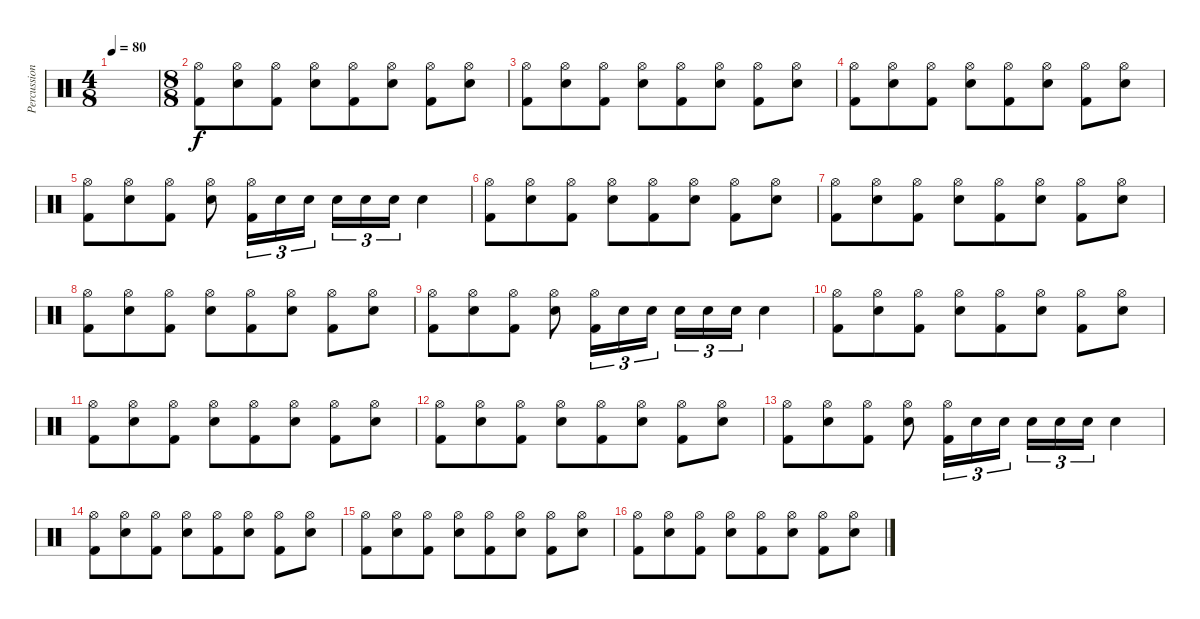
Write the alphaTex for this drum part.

\track ("Percussion" "Percussion") {instrument percussion}
\staff {score}
\articulation defaults
\ts (4 8)
\tempo 80
\clef neutral
\ks c
|
\ts (8 8)
("Hi-Hat (open)" "Kick (hit) 2").8 ("Hi-Hat (open)" "Electric Snare (hit)").8 ("Hi-Hat (open)" "Kick (hit) 2").8 ("Hi-Hat (open)" "Electric Snare (hit)").8 ("Hi-Hat (open)" "Kick (hit) 2").8 ("Hi-Hat (open)" "Electric Snare (hit)").8 ("Hi-Hat (open)" "Kick (hit) 2").8 ("Hi-Hat (open)" "Electric Snare (hit)").8 |
("Hi-Hat (open)" "Kick (hit) 2").8 ("Hi-Hat (open)" "Electric Snare (hit)").8 ("Hi-Hat (open)" "Kick (hit) 2").8 ("Hi-Hat (open)" "Electric Snare (hit)").8 ("Hi-Hat (open)" "Kick (hit) 2").8 ("Hi-Hat (open)" "Electric Snare (hit)").8 ("Hi-Hat (open)" "Kick (hit) 2").8 ("Hi-Hat (open)" "Electric Snare (hit)").8 |
("Hi-Hat (open)" "Kick (hit) 2").8 ("Hi-Hat (open)" "Electric Snare (hit)").8 ("Hi-Hat (open)" "Kick (hit) 2").8 ("Hi-Hat (open)" "Electric Snare (hit)").8 ("Hi-Hat (open)" "Kick (hit) 2").8 ("Hi-Hat (open)" "Electric Snare (hit)").8 ("Hi-Hat (open)" "Kick (hit) 2").8 ("Hi-Hat (open)" "Electric Snare (hit)").8 |
("Hi-Hat (open)" "Kick (hit) 2").8 ("Hi-Hat (open)" "Electric Snare (hit)").8 ("Hi-Hat (open)" "Kick (hit) 2").8 ("Hi-Hat (open)" "Electric Snare (hit)").8 ("Hi-Hat (open)" "Kick (hit) 2").16{tu (3 2)} "Electric Snare (hit)".16{tu (3 2)} "Electric Snare (hit)".16{tu (3 2)} "Electric Snare (hit)".16{tu (3 2)} "Electric Snare (hit)".16{tu (3 2)} "Electric Snare (hit)".16{tu (3 2)} "Electric Snare (hit)".4 |
("Hi-Hat (open)" "Kick (hit) 2").8 ("Hi-Hat (open)" "Electric Snare (hit)").8 ("Hi-Hat (open)" "Kick (hit) 2").8 ("Hi-Hat (open)" "Electric Snare (hit)").8 ("Hi-Hat (open)" "Kick (hit) 2").8 ("Hi-Hat (open)" "Electric Snare (hit)").8 ("Hi-Hat (open)" "Kick (hit) 2").8 ("Hi-Hat (open)" "Electric Snare (hit)").8 |
("Hi-Hat (open)" "Kick (hit) 2").8 ("Hi-Hat (open)" "Electric Snare (hit)").8 ("Hi-Hat (open)" "Kick (hit) 2").8 ("Hi-Hat (open)" "Electric Snare (hit)").8 ("Hi-Hat (open)" "Kick (hit) 2").8 ("Hi-Hat (open)" "Electric Snare (hit)").8 ("Hi-Hat (open)" "Kick (hit) 2").8 ("Hi-Hat (open)" "Electric Snare (hit)").8 |
("Hi-Hat (open)" "Kick (hit) 2").8 ("Hi-Hat (open)" "Electric Snare (hit)").8 ("Hi-Hat (open)" "Kick (hit) 2").8 ("Hi-Hat (open)" "Electric Snare (hit)").8 ("Hi-Hat (open)" "Kick (hit) 2").8 ("Hi-Hat (open)" "Electric Snare (hit)").8 ("Hi-Hat (open)" "Kick (hit) 2").8 ("Hi-Hat (open)" "Electric Snare (hit)").8 |
("Hi-Hat (open)" "Kick (hit) 2").8 ("Hi-Hat (open)" "Electric Snare (hit)").8 ("Hi-Hat (open)" "Kick (hit) 2").8 ("Hi-Hat (open)" "Electric Snare (hit)").8 ("Hi-Hat (open)" "Kick (hit) 2").16{tu (3 2)} "Electric Snare (hit)".16{tu (3 2)} "Electric Snare (hit)".16{tu (3 2)} "Electric Snare (hit)".16{tu (3 2)} "Electric Snare (hit)".16{tu (3 2)} "Electric Snare (hit)".16{tu (3 2)} "Electric Snare (hit)".4 |
("Hi-Hat (open)" "Kick (hit) 2").8 ("Hi-Hat (open)" "Electric Snare (hit)").8 ("Hi-Hat (open)" "Kick (hit) 2").8 ("Hi-Hat (open)" "Electric Snare (hit)").8 ("Hi-Hat (open)" "Kick (hit) 2").8 ("Hi-Hat (open)" "Electric Snare (hit)").8 ("Hi-Hat (open)" "Kick (hit) 2").8 ("Hi-Hat (open)" "Electric Snare (hit)").8 |
("Hi-Hat (open)" "Kick (hit) 2").8 ("Hi-Hat (open)" "Electric Snare (hit)").8 ("Hi-Hat (open)" "Kick (hit) 2").8 ("Hi-Hat (open)" "Electric Snare (hit)").8 ("Hi-Hat (open)" "Kick (hit) 2").8 ("Hi-Hat (open)" "Electric Snare (hit)").8 ("Hi-Hat (open)" "Kick (hit) 2").8 ("Hi-Hat (open)" "Electric Snare (hit)").8 |
("Hi-Hat (open)" "Kick (hit) 2").8 ("Hi-Hat (open)" "Electric Snare (hit)").8 ("Hi-Hat (open)" "Kick (hit) 2").8 ("Hi-Hat (open)" "Electric Snare (hit)").8 ("Hi-Hat (open)" "Kick (hit) 2").8 ("Hi-Hat (open)" "Electric Snare (hit)").8 ("Hi-Hat (open)" "Kick (hit) 2").8 ("Hi-Hat (open)" "Electric Snare (hit)").8 |
("Hi-Hat (open)" "Kick (hit) 2").8 ("Hi-Hat (open)" "Electric Snare (hit)").8 ("Hi-Hat (open)" "Kick (hit) 2").8 ("Hi-Hat (open)" "Electric Snare (hit)").8 ("Hi-Hat (open)" "Kick (hit) 2").16{tu (3 2)} "Electric Snare (hit)".16{tu (3 2)} "Electric Snare (hit)".16{tu (3 2)} "Electric Snare (hit)".16{tu (3 2)} "Electric Snare (hit)".16{tu (3 2)} "Electric Snare (hit)".16{tu (3 2)} "Electric Snare (hit)".4 |
("Hi-Hat (open)" "Kick (hit) 2").8 ("Hi-Hat (open)" "Electric Snare (hit)").8 ("Hi-Hat (open)" "Kick (hit) 2").8 ("Hi-Hat (open)" "Electric Snare (hit)").8 ("Hi-Hat (open)" "Kick (hit) 2").8 ("Hi-Hat (open)" "Electric Snare (hit)").8 ("Hi-Hat (open)" "Kick (hit) 2").8 ("Hi-Hat (open)" "Electric Snare (hit)").8 |
("Hi-Hat (open)" "Kick (hit) 2").8 ("Hi-Hat (open)" "Electric Snare (hit)").8 ("Hi-Hat (open)" "Kick (hit) 2").8 ("Hi-Hat (open)" "Electric Snare (hit)").8 ("Hi-Hat (open)" "Kick (hit) 2").8 ("Hi-Hat (open)" "Electric Snare (hit)").8 ("Hi-Hat (open)" "Kick (hit) 2").8 ("Hi-Hat (open)" "Electric Snare (hit)").8 |
("Hi-Hat (open)" "Kick (hit) 2").8 ("Hi-Hat (open)" "Electric Snare (hit)").8 ("Hi-Hat (open)" "Kick (hit) 2").8 ("Hi-Hat (open)" "Electric Snare (hit)").8 ("Hi-Hat (open)" "Kick (hit) 2").8 ("Hi-Hat (open)" "Electric Snare (hit)").8 ("Hi-Hat (open)" "Kick (hit) 2").8 ("Hi-Hat (open)" "Electric Snare (hit)").8
